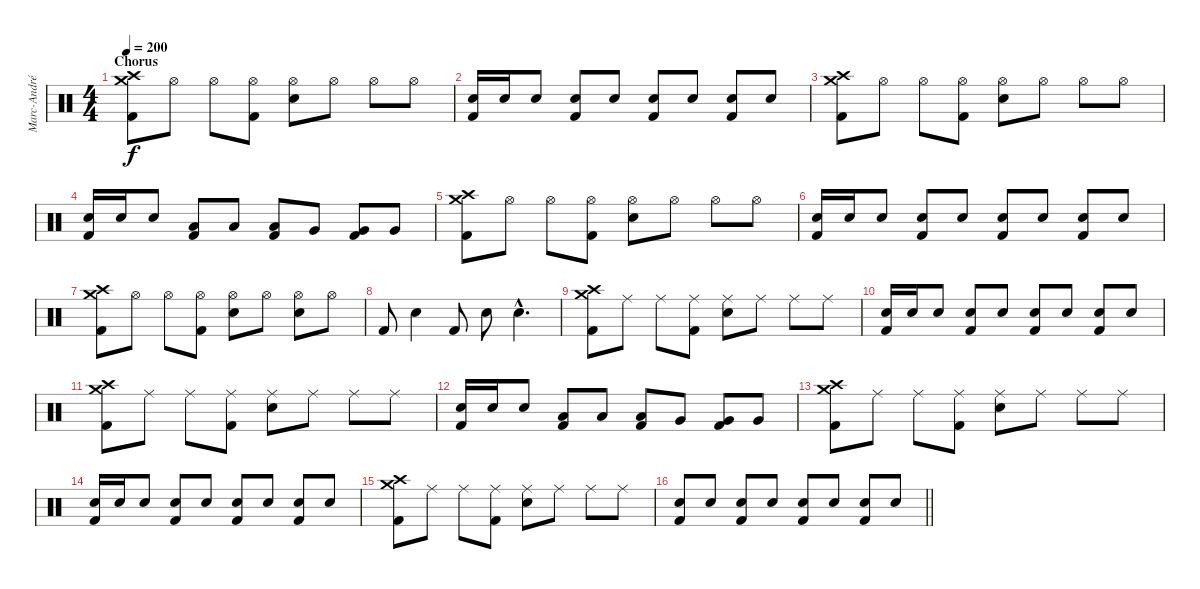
\track ("Marc-André Barabé" "Marc-André") {instrument percussion}
\staff {score}
\articulation defaults
\ts (4 4)
\section ("" "Chorus")
\tempo 200
\clef neutral
\ks c
("Crash high (hit)" "Crash medium (hit)" "Kick (hit) 2").8{dy f} "Hi-Hat (open)".8 "Hi-Hat (open)".8 ("Hi-Hat (open)" "Kick (hit) 2"{tr (36 32)}).8 ("Hi-Hat (open)" "Electric Snare (hit)").8 "Hi-Hat (open)".8 "Hi-Hat (open)".8 "Hi-Hat (open)".8 |
("Electric Snare (hit)" "Kick (hit) 2").16 "Electric Snare (hit)".16 "Electric Snare (hit)".8 ("Electric Snare (hit)" "Kick (hit) 2").8 "Electric Snare (hit)".8 ("Electric Snare (hit)" "Kick (hit) 2").8 "Electric Snare (hit)".8 ("Electric Snare (hit)" "Kick (hit) 2").8 "Electric Snare (hit)".8 |
("Crash high (hit)" "Crash medium (hit)" "Kick (hit) 2").8 "Hi-Hat (open)".8 "Hi-Hat (open)".8 ("Hi-Hat (open)" "Kick (hit) 2"{tr (36 32)}).8 ("Hi-Hat (open)" "Electric Snare (hit)").8 "Hi-Hat (open)".8 "Hi-Hat (open)".8 "Hi-Hat (open)".8 |
("Electric Snare (hit)" "Kick (hit) 2").16 "Electric Snare (hit)".16 "Electric Snare (hit)".8 ("Low Tom (hit)" "Kick (hit) 2").8 "Low Tom (hit)".8 ("Low Tom (hit)" "Kick (hit) 2").8 "Very Low Tom (hit)".8 ("Very Low Tom (hit)" "Kick (hit) 2").8 "Very Low Tom (hit)".8 |
("Crash high (hit)" "Crash medium (hit)" "Kick (hit) 2").8 "Hi-Hat (open)".8 "Hi-Hat (open)".8 ("Hi-Hat (open)" "Kick (hit) 2"{tr (36 32)}).8 ("Hi-Hat (open)" "Electric Snare (hit)").8 "Hi-Hat (open)".8 "Hi-Hat (open)".8 "Hi-Hat (open)".8 |
("Electric Snare (hit)" "Kick (hit) 2").16 "Electric Snare (hit)".16 "Electric Snare (hit)".8 ("Electric Snare (hit)" "Kick (hit) 2").8 "Electric Snare (hit)".8 ("Electric Snare (hit)" "Kick (hit) 2").8 "Electric Snare (hit)".8 ("Electric Snare (hit)" "Kick (hit) 2").8 "Electric Snare (hit)".8 |
("Crash high (hit)" "Crash medium (hit)" "Kick (hit) 2").8 "Hi-Hat (open)".8 "Hi-Hat (open)".8 ("Hi-Hat (open)" "Kick (hit) 2"{tr (36 32)}).8 ("Hi-Hat (open)" "Electric Snare (hit)").8 "Hi-Hat (open)".8 ("Hi-Hat (open)" "Electric Snare (hit)").8 "Hi-Hat (open)".8 |
"Kick (hit) 2"{tr (36 32)}.8 "Electric Snare (hit)".4 "Kick (hit) 2"{tr (36 32)}.8 "Electric Snare (hit)".8 "Electric Snare (hit)"{hac}.4{d} |
("Crash high (hit)" "Crash medium (hit)" "Kick (hit) 2").8 "Ride (middle)".8 "Ride (middle)".8 ("Ride (middle)" "Kick (hit) 2"{tr (36 32)}).8 ("Ride (middle)" "Electric Snare (hit)").8 "Ride (middle)".8 "Ride (middle)".8 "Ride (middle)".8 |
("Electric Snare (hit)" "Kick (hit) 2").16 "Electric Snare (hit)".16 "Electric Snare (hit)".8 ("Electric Snare (hit)" "Kick (hit) 2").8 "Electric Snare (hit)".8 ("Electric Snare (hit)" "Kick (hit) 2").8 "Electric Snare (hit)".8 ("Electric Snare (hit)" "Kick (hit) 2").8 "Electric Snare (hit)".8 |
("Crash high (hit)" "Crash medium (hit)" "Kick (hit) 2").8 "Ride (middle)".8 "Ride (middle)".8 ("Ride (middle)" "Kick (hit) 2"{tr (36 32)}).8 ("Ride (middle)" "Electric Snare (hit)").8 "Ride (middle)".8 "Ride (middle)".8 "Ride (middle)".8 |
("Electric Snare (hit)" "Kick (hit) 2").16 "Electric Snare (hit)".16 "Electric Snare (hit)".8 ("Low Tom (hit)" "Kick (hit) 2").8 "Low Tom (hit)".8 ("Low Tom (hit)" "Kick (hit) 2").8 "Very Low Tom (hit)".8 ("Very Low Tom (hit)" "Kick (hit) 2").8 "Very Low Tom (hit)".8 |
("Crash high (hit)" "Crash medium (hit)" "Kick (hit) 2").8 "Ride (middle)".8 "Ride (middle)".8 ("Ride (middle)" "Kick (hit) 2"{tr (36 32)}).8 ("Ride (middle)" "Electric Snare (hit)").8 "Ride (middle)".8 "Ride (middle)".8 "Ride (middle)".8 |
("Electric Snare (hit)" "Kick (hit) 2").16 "Electric Snare (hit)".16 "Electric Snare (hit)".8 ("Electric Snare (hit)" "Kick (hit) 2").8 "Electric Snare (hit)".8 ("Electric Snare (hit)" "Kick (hit) 2").8 "Electric Snare (hit)".8 ("Electric Snare (hit)" "Kick (hit) 2").8 "Electric Snare (hit)".8 |
("Crash high (hit)" "Crash medium (hit)" "Kick (hit) 2").8 "Ride (middle)".8 "Ride (middle)".8 ("Ride (middle)" "Kick (hit) 2"{tr (36 32)}).8 ("Ride (middle)" "Electric Snare (hit)").8 "Ride (middle)".8 "Ride (middle)".8 "Ride (middle)".8 |
\barLineRight lightlight
("Electric Snare (hit)" "Kick (hit) 2").8 "Electric Snare (hit)".8 ("Electric Snare (hit)" "Kick (hit) 2").8 "Electric Snare (hit)".8 ("Electric Snare (hit)" "Kick (hit) 2").8 "Electric Snare (hit)".8 ("Electric Snare (hit)" "Kick (hit) 2").8 "Electric Snare (hit)".8
